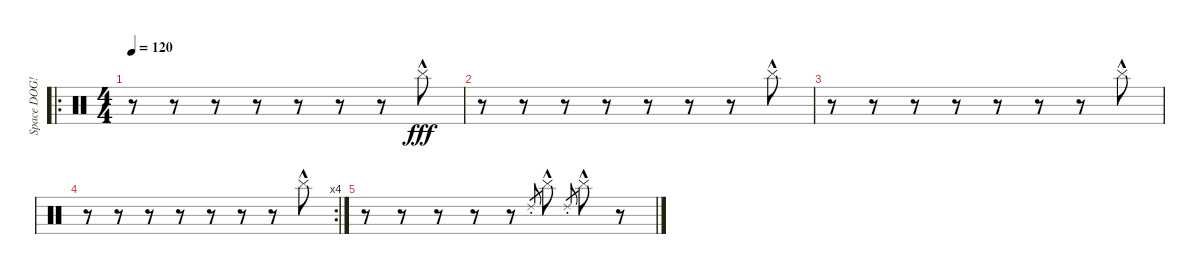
\track ("Space DOG!" "Space DOG!") {instrument percussion}
\staff {score}
\articulation defaults
\ro
\ts (4 4)
\tempo 120
\clef neutral
\ks c
r.8{dy fff} r.8 r.8 r.8 r.8 r.8 r.8 "Cymbal (hit)"{hac}.8 |
r.8 r.8 r.8 r.8 r.8 r.8 r.8 "Cymbal (hit)"{hac}.8 |
r.8 r.8 r.8 r.8 r.8 r.8 r.8 "Cymbal (hit)"{hac}.8 |
\rc 4
r.8 r.8 r.8 r.8 r.8 r.8 r.8 "Cymbal (hit)"{hac}.8 |
r.8 r.8 r.8 r.8 r.8 "Ride (choke) 2".8{gr} "Cymbal (hit)"{hac}.8 "Ride (choke) 2".8{gr} "Cymbal (hit)"{hac}.8 r.8
